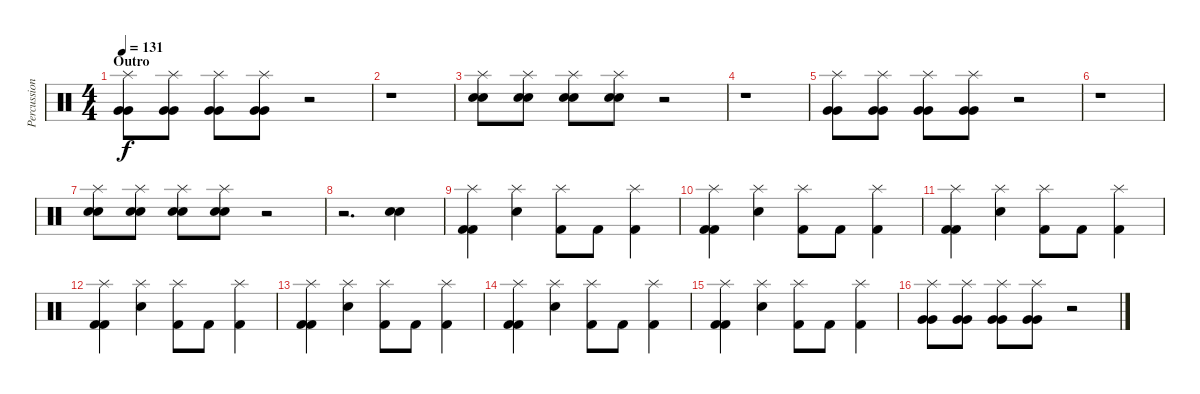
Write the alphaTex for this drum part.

\track ("Percussion" "Percussion") {instrument percussion}
\staff {score}
\articulation defaults
\ts (4 4)
\section ("" "Outro")
\tempo 131
\clef neutral
\ks c
("Splash (hit)" "Very Low Tom (hit)" "Very Low Tom (hit)").8{dy f} ("Splash (hit)" "Very Low Tom (hit)" "Very Low Tom (hit)").8 ("Splash (hit)" "Very Low Tom (hit)" "Very Low Tom (hit)").8 ("Splash (hit)" "Very Low Tom (hit)" "Very Low Tom (hit)").8 r.2 |
r.1 |
("Splash (hit)" "Snare (hit) 2" "Snare (hit) 2").8 ("Splash (hit)" "Snare (hit) 2" "Snare (hit) 2").8 ("Splash (hit)" "Snare (hit) 2" "Snare (hit) 2").8 ("Splash (hit)" "Snare (hit) 2" "Snare (hit) 2").8 r.2 |
r.1 |
("Splash (hit)" "Very Low Tom (hit)" "Very Low Tom (hit)").8 ("Splash (hit)" "Very Low Tom (hit)" "Very Low Tom (hit)").8 ("Splash (hit)" "Very Low Tom (hit)" "Very Low Tom (hit)").8 ("Splash (hit)" "Very Low Tom (hit)" "Very Low Tom (hit)").8 r.2 |
r.1 |
("Splash (hit)" "Snare (hit) 2" "Snare (hit) 2").8 ("Splash (hit)" "Snare (hit) 2" "Snare (hit) 2").8 ("Splash (hit)" "Snare (hit) 2" "Snare (hit) 2").8 ("Splash (hit)" "Snare (hit) 2" "Snare (hit) 2").8 r.2 |
r.2{d} ("Snare (hit) 2" "Snare (hit) 2").4 |
("Splash (hit)" "Kick (hit) 2" "Kick (hit) 2").4 ("Splash (hit)" "Snare (hit) 2").4 ("Splash (hit)" "Kick (hit) 2").8 "Kick (hit) 2".8 ("Splash (hit)" "Kick (hit) 2").4 |
("Splash (hit)" "Kick (hit) 2" "Kick (hit) 2").4 ("Splash (hit)" "Snare (hit) 2").4 ("Splash (hit)" "Kick (hit) 2").8 "Kick (hit) 2".8 ("Splash (hit)" "Kick (hit) 2").4 |
("Splash (hit)" "Kick (hit) 2" "Kick (hit) 2").4 ("Splash (hit)" "Snare (hit) 2").4 ("Splash (hit)" "Kick (hit) 2").8 "Kick (hit) 2".8 ("Splash (hit)" "Kick (hit) 2").4 |
("Splash (hit)" "Kick (hit) 2" "Kick (hit) 2").4 ("Splash (hit)" "Snare (hit) 2").4 ("Splash (hit)" "Kick (hit) 2").8 "Kick (hit) 2".8 ("Splash (hit)" "Kick (hit) 2").4 |
("Splash (hit)" "Kick (hit) 2" "Kick (hit) 2").4 ("Splash (hit)" "Snare (hit) 2").4 ("Splash (hit)" "Kick (hit) 2").8 "Kick (hit) 2".8 ("Splash (hit)" "Kick (hit) 2").4 |
("Splash (hit)" "Kick (hit) 2" "Kick (hit) 2").4 ("Splash (hit)" "Snare (hit) 2").4 ("Splash (hit)" "Kick (hit) 2").8 "Kick (hit) 2".8 ("Splash (hit)" "Kick (hit) 2").4 |
("Splash (hit)" "Kick (hit) 2" "Kick (hit) 2").4 ("Splash (hit)" "Snare (hit) 2").4 ("Splash (hit)" "Kick (hit) 2").8 "Kick (hit) 2".8 ("Splash (hit)" "Kick (hit) 2").4 |
("Splash (hit)" "Very Low Tom (hit)" "Very Low Tom (hit)").8 ("Splash (hit)" "Very Low Tom (hit)" "Very Low Tom (hit)").8 ("Splash (hit)" "Very Low Tom (hit)" "Very Low Tom (hit)").8 ("Splash (hit)" "Very Low Tom (hit)" "Very Low Tom (hit)").8 r.2
